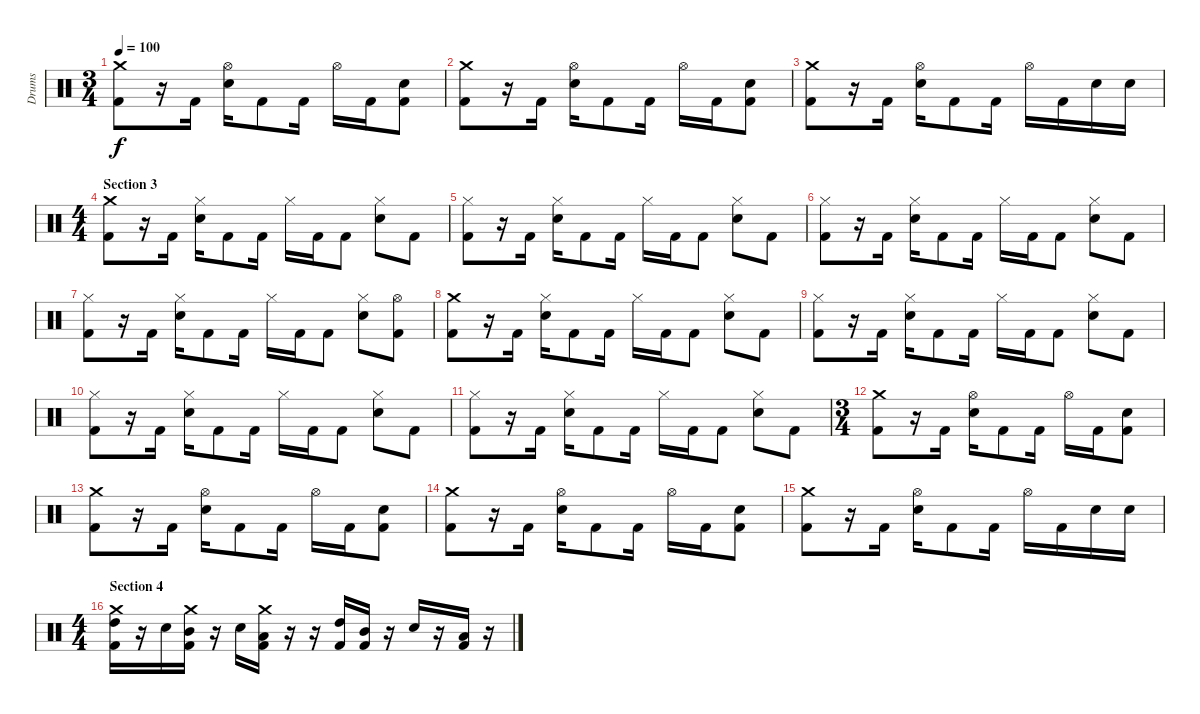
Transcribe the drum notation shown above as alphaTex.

\track ("Drums" "Drums") {instrument percussion}
\staff {score}
\articulation defaults
\ts (3 4)
\tempo 100
\clef neutral
\ks c
("Crash medium (hit)" "Kick (hit) 2").8{dy f} r.16 "Kick (hit) 2".16 ("Hi-Hat (open)" "Snare (hit) 2").16 "Kick (hit) 2".8 "Kick (hit) 2".16 "Hi-Hat (open)".16 "Kick (hit) 2".16 ("Snare (hit) 2" "Kick (hit) 2").8 |
("Crash medium (hit)" "Kick (hit) 2").8 r.16 "Kick (hit) 2".16 ("Hi-Hat (open)" "Snare (hit) 2").16 "Kick (hit) 2".8 "Kick (hit) 2".16 "Hi-Hat (open)".16 "Kick (hit) 2".16 ("Snare (hit) 2" "Kick (hit) 2").8 |
("Crash medium (hit)" "Kick (hit) 2").8 r.16 "Kick (hit) 2".16 ("Hi-Hat (open)" "Snare (hit) 2").16 "Kick (hit) 2".8 "Kick (hit) 2".16 "Hi-Hat (open)".16 "Kick (hit) 2".16 "Snare (hit) 2".16 "Snare (hit) 2".16 |
\ts (4 4)
\section ("" "Section 3")
("Crash medium (hit)" "Kick (hit) 2").8 r.16 "Kick (hit) 2".16 ("Hi-Hat (closed)" "Snare (hit) 2").16 "Kick (hit) 2".8 "Kick (hit) 2".16 "Hi-Hat (closed)".16 "Kick (hit) 2".16 "Kick (hit) 2".8 ("Hi-Hat (closed)" "Snare (hit) 2").8 "Kick (hit) 2".8 |
("Hi-Hat (closed)" "Kick (hit) 2").8 r.16 "Kick (hit) 2".16 ("Hi-Hat (closed)" "Snare (hit) 2").16 "Kick (hit) 2".8 "Kick (hit) 2".16 "Hi-Hat (closed)".16 "Kick (hit) 2".16 "Kick (hit) 2".8 ("Hi-Hat (closed)" "Snare (hit) 2").8 "Kick (hit) 2".8 |
("Hi-Hat (closed)" "Kick (hit) 2").8 r.16 "Kick (hit) 2".16 ("Hi-Hat (closed)" "Snare (hit) 2").16 "Kick (hit) 2".8 "Kick (hit) 2".16 "Hi-Hat (closed)".16 "Kick (hit) 2".16 "Kick (hit) 2".8 ("Hi-Hat (closed)" "Snare (hit) 2").8 "Kick (hit) 2".8 |
("Hi-Hat (closed)" "Kick (hit) 2").8 r.16 "Kick (hit) 2".16 ("Hi-Hat (closed)" "Snare (hit) 2").16 "Kick (hit) 2".8 "Kick (hit) 2".16 "Hi-Hat (closed)".16 "Kick (hit) 2".16 "Kick (hit) 2".8 ("Hi-Hat (closed)" "Snare (hit) 2").8 ("Hi-Hat (open)" "Kick (hit) 2").8 |
("Crash medium (hit)" "Kick (hit) 2").8 r.16 "Kick (hit) 2".16 ("Hi-Hat (closed)" "Snare (hit) 2").16 "Kick (hit) 2".8 "Kick (hit) 2".16 "Hi-Hat (closed)".16 "Kick (hit) 2".16 "Kick (hit) 2".8 ("Hi-Hat (closed)" "Snare (hit) 2").8 "Kick (hit) 2".8 |
("Hi-Hat (closed)" "Kick (hit) 2").8 r.16 "Kick (hit) 2".16 ("Hi-Hat (closed)" "Snare (hit) 2").16 "Kick (hit) 2".8 "Kick (hit) 2".16 "Hi-Hat (closed)".16 "Kick (hit) 2".16 "Kick (hit) 2".8 ("Hi-Hat (closed)" "Snare (hit) 2").8 "Kick (hit) 2".8 |
("Hi-Hat (closed)" "Kick (hit) 2").8 r.16 "Kick (hit) 2".16 ("Hi-Hat (closed)" "Snare (hit) 2").16 "Kick (hit) 2".8 "Kick (hit) 2".16 "Hi-Hat (closed)".16 "Kick (hit) 2".16 "Kick (hit) 2".8 ("Hi-Hat (closed)" "Snare (hit) 2").8 "Kick (hit) 2".8 |
("Hi-Hat (closed)" "Kick (hit) 2").8 r.16 "Kick (hit) 2".16 ("Hi-Hat (closed)" "Snare (hit) 2").16 "Kick (hit) 2".8 "Kick (hit) 2".16 "Hi-Hat (closed)".16 "Kick (hit) 2".16 "Kick (hit) 2".8 ("Hi-Hat (closed)" "Snare (hit) 2").8 "Kick (hit) 2".8 |
\ts (3 4)
("Crash medium (hit)" "Kick (hit) 2").8 r.16 "Kick (hit) 2".16 ("Hi-Hat (open)" "Snare (hit) 2").16 "Kick (hit) 2".8 "Kick (hit) 2".16 "Hi-Hat (open)".16 "Kick (hit) 2".16 ("Snare (hit) 2" "Kick (hit) 2").8 |
("Crash medium (hit)" "Kick (hit) 2").8 r.16 "Kick (hit) 2".16 ("Hi-Hat (open)" "Snare (hit) 2").16 "Kick (hit) 2".8 "Kick (hit) 2".16 "Hi-Hat (open)".16 "Kick (hit) 2".16 ("Snare (hit) 2" "Kick (hit) 2").8 |
("Crash medium (hit)" "Kick (hit) 2").8 r.16 "Kick (hit) 2".16 ("Hi-Hat (open)" "Snare (hit) 2").16 "Kick (hit) 2".8 "Kick (hit) 2".16 "Hi-Hat (open)".16 "Kick (hit) 2".16 ("Snare (hit) 2" "Kick (hit) 2").8 |
("Crash medium (hit)" "Kick (hit) 2").8 r.16 "Kick (hit) 2".16 ("Hi-Hat (open)" "Snare (hit) 2").16 "Kick (hit) 2".8 "Kick (hit) 2".16 "Hi-Hat (open)".16 "Kick (hit) 2".16 "Snare (hit) 2".16 "Snare (hit) 2".16 |
\ts (4 4)
\section ("" "Section 4")
("Crash medium (hit)" "High Tom (hit)" "Kick (hit) 2").16 r.16 "Snare (hit) 2".16 ("Crash medium (hit)" "Mid Tom (hit)" "Kick (hit) 2").16 r.16 "Snare (hit) 2".16 ("Crash medium (hit)" "Low Tom (hit)" "Kick (hit) 2").16 r.16 r.16 ("High Tom (hit)" "Kick (hit) 2").16 ("Mid Tom (hit)" "Kick (hit) 2").16 r.16 "Snare (hit) 2".16 r.16 ("Low Tom (hit)" "Kick (hit) 2").16 r.16
